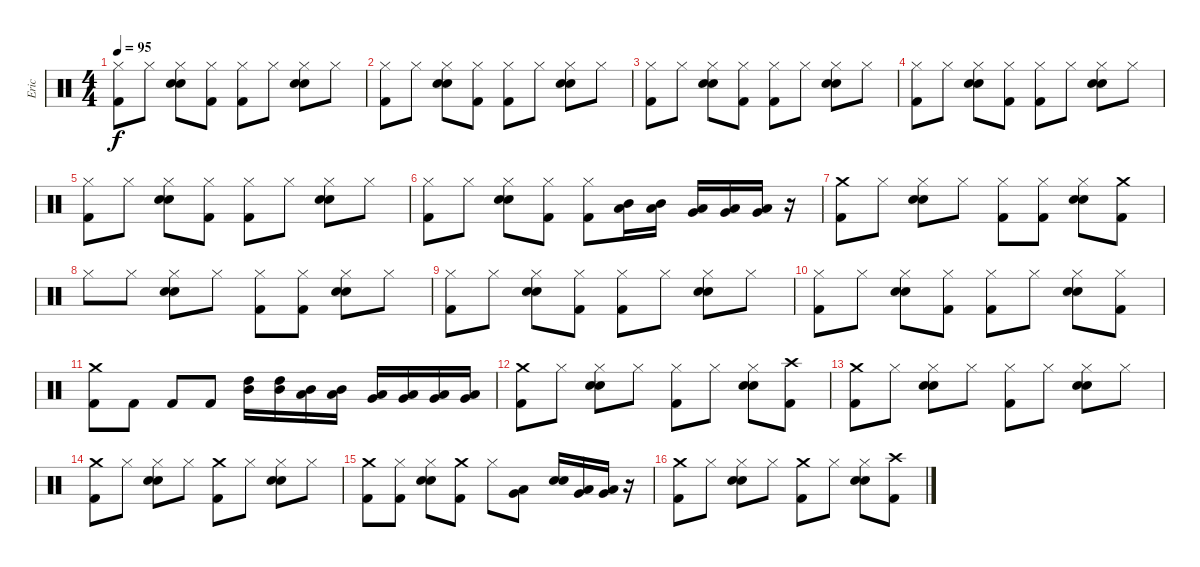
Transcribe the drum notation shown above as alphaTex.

\track ("Eric" "Eric") {instrument percussion}
\staff {score}
\articulation defaults
\ts (4 4)
\tempo 95
\clef neutral
\ks c
("Hi-Hat (closed)" "Kick (hit) 2").8{dy f} "Hi-Hat (closed)".8 ("Hi-Hat (closed)" "Electric Snare (hit)" "Snare (hit) 2").8 ("Hi-Hat (closed)" "Kick (hit) 2").8 ("Hi-Hat (closed)" "Kick (hit) 2").8 "Hi-Hat (closed)".8 ("Hi-Hat (closed)" "Electric Snare (hit)" "Snare (hit) 2").8 "Hi-Hat (closed)".8 |
("Hi-Hat (closed)" "Kick (hit) 2").8 "Hi-Hat (closed)".8 ("Hi-Hat (closed)" "Electric Snare (hit)" "Snare (hit) 2").8 ("Hi-Hat (closed)" "Kick (hit) 2").8 ("Hi-Hat (closed)" "Kick (hit) 2").8 "Hi-Hat (closed)".8 ("Hi-Hat (closed)" "Electric Snare (hit)" "Snare (hit) 2").8 "Hi-Hat (closed)".8 |
("Hi-Hat (closed)" "Kick (hit) 2").8 "Hi-Hat (closed)".8 ("Hi-Hat (closed)" "Electric Snare (hit)" "Snare (hit) 2").8 ("Hi-Hat (closed)" "Kick (hit) 2").8 ("Hi-Hat (closed)" "Kick (hit) 2").8 "Hi-Hat (closed)".8 ("Hi-Hat (closed)" "Electric Snare (hit)" "Snare (hit) 2").8 "Hi-Hat (closed)".8 |
("Hi-Hat (closed)" "Kick (hit) 2").8 "Hi-Hat (closed)".8 ("Hi-Hat (closed)" "Electric Snare (hit)" "Snare (hit) 2").8 ("Hi-Hat (closed)" "Kick (hit) 2").8 ("Hi-Hat (closed)" "Kick (hit) 2").8 "Hi-Hat (closed)".8 ("Hi-Hat (closed)" "Electric Snare (hit)" "Snare (hit) 2").8 "Hi-Hat (closed)".8 |
("Hi-Hat (closed)" "Kick (hit) 2").8 "Hi-Hat (closed)".8 ("Hi-Hat (closed)" "Electric Snare (hit)" "Snare (hit) 2").8 ("Hi-Hat (closed)" "Kick (hit) 2").8 ("Hi-Hat (closed)" "Kick (hit) 2").8 "Hi-Hat (closed)".8 ("Hi-Hat (closed)" "Electric Snare (hit)" "Snare (hit) 2").8 "Hi-Hat (closed)".8 |
("Hi-Hat (closed)" "Kick (hit) 2").8 "Hi-Hat (closed)".8 ("Hi-Hat (closed)" "Electric Snare (hit)" "Snare (hit) 2").8 ("Hi-Hat (closed)" "Kick (hit) 2").8 ("Hi-Hat (closed)" "Kick (hit) 2").8 ("Mid Tom (hit)" "Low Tom (hit)").16 ("Mid Tom (hit)" "Low Tom (hit)").16 ("Low Tom (hit)" "Very Low Tom (hit)").16 ("Low Tom (hit)" "Very Low Tom (hit)").16 ("Very Low Tom (hit)" "Low Floor Tom (hit)").16 r.16 |
("Crash medium (hit)" "Kick (hit) 2").8 "Hi-Hat (closed)".8 ("Hi-Hat (closed)" "Electric Snare (hit)" "Snare (hit) 2").8 "Hi-Hat (closed)".8 ("Hi-Hat (closed)" "Kick (hit) 2").8 ("Kick (hit) 2" "Hi-Hat (closed)").8 ("Hi-Hat (closed)" "Electric Snare (hit)" "Snare (hit) 2").8 ("Kick (hit) 2" "Crash medium (hit)").8 |
"Hi-Hat (closed)".8 "Hi-Hat (closed)".8 ("Hi-Hat (closed)" "Electric Snare (hit)" "Snare (hit) 2").8 "Hi-Hat (closed)".8 ("Hi-Hat (closed)" "Kick (hit) 2").8 ("Kick (hit) 2" "Hi-Hat (closed)").8 ("Hi-Hat (closed)" "Electric Snare (hit)" "Snare (hit) 2").8 "Hi-Hat (closed)".8 |
("Hi-Hat (closed)" "Kick (hit) 2").8 "Hi-Hat (closed)".8 ("Hi-Hat (closed)" "Electric Snare (hit)" "Snare (hit) 2").8 ("Hi-Hat (closed)" "Kick (hit) 2").8 ("Hi-Hat (closed)" "Kick (hit) 2").8 "Hi-Hat (closed)".8 ("Hi-Hat (closed)" "Electric Snare (hit)" "Snare (hit) 2").8 "Hi-Hat (closed)".8 |
("Hi-Hat (closed)" "Kick (hit) 2").8 "Hi-Hat (closed)".8 ("Hi-Hat (closed)" "Electric Snare (hit)" "Snare (hit) 2").8 ("Hi-Hat (closed)" "Kick (hit) 2").8 ("Hi-Hat (closed)" "Kick (hit) 2").8 "Hi-Hat (closed)".8 ("Hi-Hat (closed)" "Electric Snare (hit)" "Snare (hit) 2").8 ("Kick (hit) 2" "Hi-Hat (closed)").8 |
("Crash medium (hit)" "Kick (hit) 2").8 "Kick (hit) 2".8 "Kick (hit) 2".8 "Kick (hit) 2".8 ("Mid Tom (hit)" "High Tom (hit)").16 ("Mid Tom (hit)" "High Tom (hit)").16 ("Low Tom (hit)" "Mid Tom (hit)").16 ("Low Tom (hit)" "Mid Tom (hit)").16 ("Low Tom (hit)" "Very Low Tom (hit)").16 ("Low Tom (hit)" "Very Low Tom (hit)").16 ("Very Low Tom (hit)" "Low Floor Tom (hit)").16 ("Very Low Tom (hit)" "Low Floor Tom (hit)").16 |
("Crash medium (hit)" "Kick (hit) 2").8 "Hi-Hat (closed)".8 ("Hi-Hat (closed)" "Electric Snare (hit)" "Snare (hit) 2").8 "Hi-Hat (closed)".8 ("Hi-Hat (closed)" "Kick (hit) 2").8 "Hi-Hat (closed)".8 ("Hi-Hat (closed)" "Electric Snare (hit)" "Snare (hit) 2").8 ("Kick (hit) 2" "Crash high (hit)").8 |
("Crash medium (hit)" "Kick (hit) 2").8 "Hi-Hat (closed)".8 ("Hi-Hat (closed)" "Electric Snare (hit)" "Snare (hit) 2").8 "Hi-Hat (closed)".8 ("Hi-Hat (closed)" "Kick (hit) 2").8 "Hi-Hat (closed)".8 ("Hi-Hat (closed)" "Electric Snare (hit)" "Snare (hit) 2").8 "Hi-Hat (closed)".8 |
("Crash medium (hit)" "Kick (hit) 2").8 "Hi-Hat (closed)".8 ("Hi-Hat (closed)" "Electric Snare (hit)" "Snare (hit) 2").8 "Hi-Hat (closed)".8 ("Crash medium (hit)" "Kick (hit) 2").8 "Hi-Hat (closed)".8 ("Hi-Hat (closed)" "Electric Snare (hit)" "Snare (hit) 2").8 "Hi-Hat (closed)".8 |
("Crash medium (hit)" "Kick (hit) 2").8 ("Kick (hit) 2" "Hi-Hat (closed)").8 ("Hi-Hat (closed)" "Electric Snare (hit)" "Snare (hit) 2").8 ("Crash medium (hit)" "Kick (hit) 2").8 "Hi-Hat (closed)".8 ("Low Tom (hit)" "Very Low Tom (hit)").8 ("Snare (hit) 2" "Electric Snare (hit)").16 ("Very Low Tom (hit)" "Low Tom (hit)").16 ("Very Low Tom (hit)" "Low Tom (hit)").16 r.16 |
("Crash medium (hit)" "Kick (hit) 2").8 "Hi-Hat (closed)".8 ("Hi-Hat (closed)" "Electric Snare (hit)" "Snare (hit) 2").8 "Hi-Hat (closed)".8 ("Crash medium (hit)" "Kick (hit) 2").8 "Hi-Hat (closed)".8 ("Hi-Hat (closed)" "Electric Snare (hit)" "Snare (hit) 2").8 ("Kick (hit) 2" "Crash high (hit)").8
